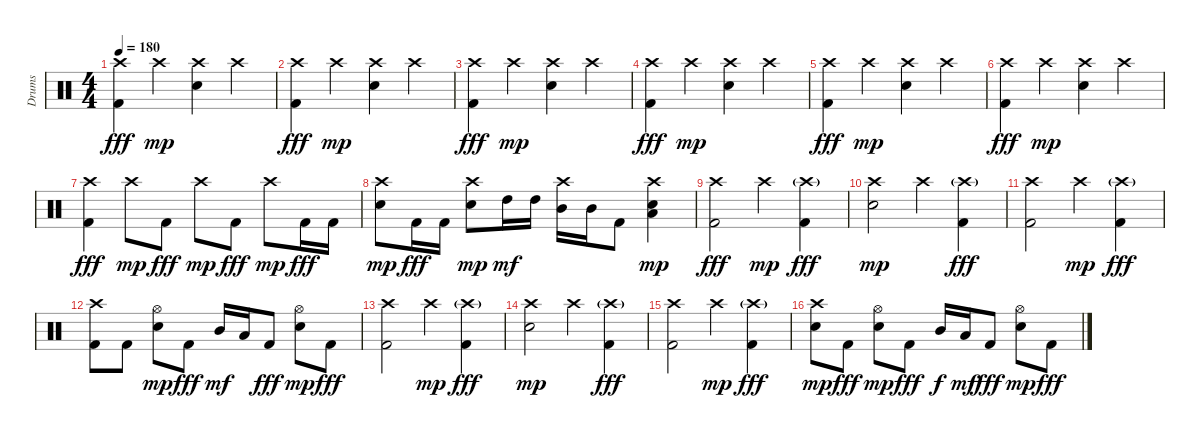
\track ("Drums" "Drums") {instrument percussion}
\staff {score}
\articulation defaults
\ts (4 4)
\tempo 180
\clef neutral
\ks c
("Crash high (hit)" "Kick (hit) 2").4{dy fff} "Crash high (hit)".4{dy mp} ("Crash high (hit)" "Electric Snare (hit)").4 "Crash high (hit)".4 |
("Crash high (hit)" "Kick (hit) 2").4{dy fff} "Crash high (hit)".4{dy mp} ("Crash high (hit)" "Electric Snare (hit)").4 "Crash high (hit)".4 |
("Crash high (hit)" "Kick (hit) 2").4{dy fff} "Crash high (hit)".4{dy mp} ("Crash high (hit)" "Electric Snare (hit)").4 "Crash high (hit)".4 |
("Crash high (hit)" "Kick (hit) 2").4{dy fff} "Crash high (hit)".4{dy mp} ("Crash high (hit)" "Electric Snare (hit)").4 "Crash high (hit)".4 |
("Crash high (hit)" "Kick (hit) 2").4{dy fff} "Crash high (hit)".4{dy mp} ("Crash high (hit)" "Electric Snare (hit)").4 "Crash high (hit)".4 |
("Crash high (hit)" "Kick (hit) 2").4{dy fff} "Crash high (hit)".4{dy mp} ("Crash high (hit)" "Electric Snare (hit)").4 "Crash high (hit)".4 |
("Crash high (hit)" "Kick (hit) 2").4{dy fff} "Crash high (hit)".8{dy mp} "Kick (hit) 2".8{dy fff} "Crash high (hit)".8{dy mp} "Kick (hit) 2".8{dy fff} "Crash high (hit)".8{dy mp} "Kick (hit) 2".16{dy fff} "Kick (hit) 2".16 |
("Crash high (hit)" "Electric Snare (hit)").8{dy mp} "Kick (hit) 2".16{dy fff} "Kick (hit) 2".16 ("Crash high (hit)" "Electric Snare (hit)").8{dy mp} "High Tom (hit)".16{dy mf} "High Tom (hit)".16 ("Crash high (hit)" "Mid Tom (hit)").16 "Mid Tom (hit)".16 "Kick (hit) 2".8 ("Crash high (hit)" "Electric Snare (hit)" "Low Floor Tom (hit)").4{dy mp} |
("Crash high (hit)" "Kick (hit) 2").2{dy fff} "Crash high (hit)".4{dy mp} ("Crash high (hit)"{g} "Kick (hit) 2").4{dy fff} |
("Crash high (hit)" "Electric Snare (hit)").2{dy mp} "Crash high (hit)".4 ("Crash high (hit)"{g} "Kick (hit) 2").4{dy fff} |
("Crash high (hit)" "Kick (hit) 2").2 "Crash high (hit)".4{dy mp} ("Crash high (hit)"{g} "Kick (hit) 2").4{dy fff} |
("Crash high (hit)" "Kick (hit) 2").8 "Kick (hit) 2".8 ("Hi-Hat (open)" "Electric Snare (hit)").8{dy mp} "Kick (hit) 2".8{dy fff} "Mid Tom (hit)".16{dy mf} "Low Tom (hit)".16 "Kick (hit) 2".8{dy fff} ("Hi-Hat (open)" "Electric Snare (hit)").8{dy mp} "Kick (hit) 2".8{dy fff} |
("Crash high (hit)" "Kick (hit) 2").2 "Crash high (hit)".4{dy mp} ("Crash high (hit)"{g} "Kick (hit) 2").4{dy fff} |
("Crash high (hit)" "Electric Snare (hit)").2{dy mp} "Crash high (hit)".4 ("Crash high (hit)"{g} "Kick (hit) 2").4{dy fff} |
("Crash high (hit)" "Kick (hit) 2").2 "Crash high (hit)".4{dy mp} ("Crash high (hit)"{g} "Kick (hit) 2").4{dy fff} |
("Crash high (hit)" "Electric Snare (hit)").8{dy mp} "Kick (hit) 2".8{dy fff} ("Hi-Hat (open)" "Electric Snare (hit)").8{dy mp} "Kick (hit) 2".8{dy fff} "Mid Tom (hit)".16{dy f} "Low Tom (hit)".16{dy mf} "Kick (hit) 2".8{dy fff} ("Hi-Hat (open)" "Electric Snare (hit)").8{dy mp} "Kick (hit) 2".8{dy fff}
